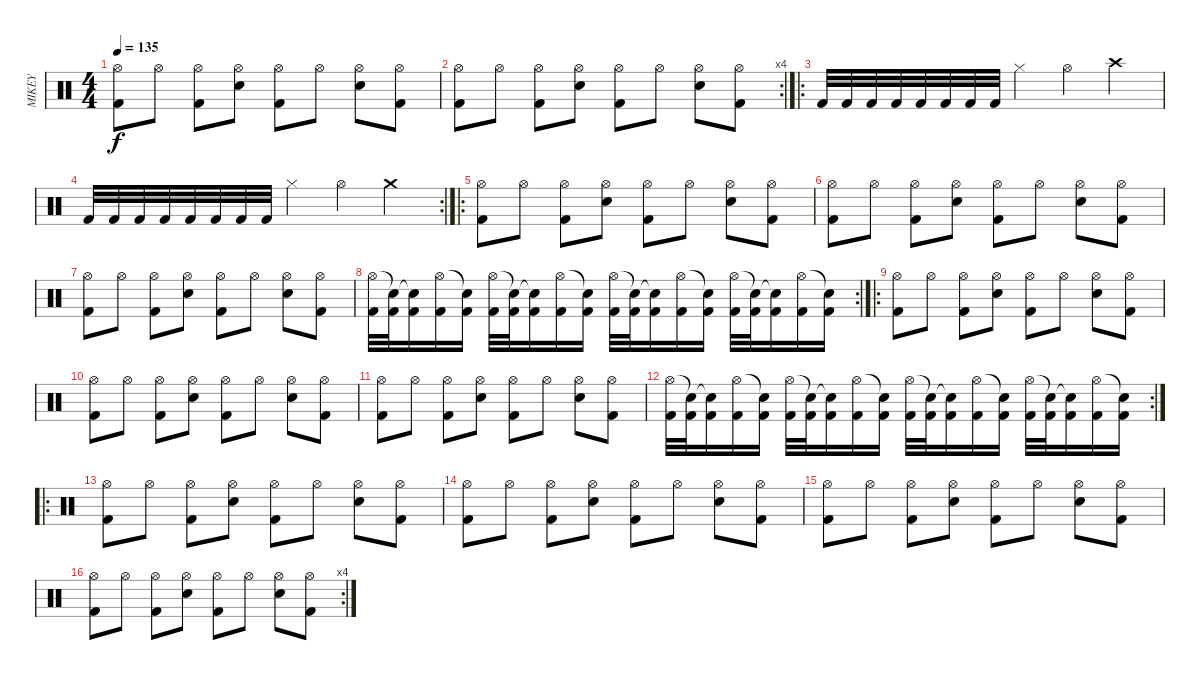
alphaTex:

\track ("MIKEY" "MIKEY") {instrument percussion}
\staff {score}
\articulation defaults
\ts (4 4)
\tempo 135
\clef neutral
\ks c
("Kick (hit) 2" "Hi-Hat (open)").8{dy f} "Hi-Hat (open)".8 ("Kick (hit) 2" "Hi-Hat (open)").8 ("Snare (hit) 2" "Hi-Hat (open)").8 ("Kick (hit) 2" "Hi-Hat (open)").8 "Hi-Hat (open)".8 ("Snare (hit) 2" "Hi-Hat (open)").8 ("Kick (hit) 2" "Hi-Hat (open)").8 |
\rc 4
("Kick (hit) 2" "Hi-Hat (open)").8 "Hi-Hat (open)".8 ("Kick (hit) 2" "Hi-Hat (open)").8 ("Snare (hit) 2" "Hi-Hat (open)").8 ("Kick (hit) 2" "Hi-Hat (open)").8 "Hi-Hat (open)".8 ("Snare (hit) 2" "Hi-Hat (open)").8 ("Kick (hit) 2" "Hi-Hat (open)").8 |
\ro "Kick (hit) 2".32 "Kick (hit) 2".32 "Kick (hit) 2".32 "Kick (hit) 2".32 "Kick (hit) 2".32 "Kick (hit) 2".32 "Kick (hit) 2".32 "Kick (hit) 2".32 "Hi-Hat (closed)".4 "Hi-Hat (open)".4 "Crash high (hit)".4
|
\rc 2 "Kick (hit) 2".32 "Kick (hit) 2".32 "Kick (hit) 2".32 "Kick (hit) 2".32 "Kick (hit) 2".32 "Kick (hit) 2".32 "Kick (hit) 2".32 "Kick (hit) 2".32 "Hi-Hat (closed)".4 "Hi-Hat (open)".4 "Crash medium (hit)".4
|
\ro
("Kick (hit) 2" "Hi-Hat (open)").8 "Hi-Hat (open)".8 ("Kick (hit) 2" "Hi-Hat (open)").8 ("Snare (hit) 2" "Hi-Hat (open)").8 ("Kick (hit) 2" "Hi-Hat (open)").8 "Hi-Hat (open)".8 ("Snare (hit) 2" "Hi-Hat (open)").8 ("Kick (hit) 2" "Hi-Hat (open)").8 |
("Kick (hit) 2" "Hi-Hat (open)").8 "Hi-Hat (open)".8 ("Kick (hit) 2" "Hi-Hat (open)").8 ("Snare (hit) 2" "Hi-Hat (open)").8 ("Kick (hit) 2" "Hi-Hat (open)").8 "Hi-Hat (open)".8 ("Snare (hit) 2" "Hi-Hat (open)").8 ("Kick (hit) 2" "Hi-Hat (open)").8 |
("Kick (hit) 2" "Hi-Hat (open)").8 "Hi-Hat (open)".8 ("Kick (hit) 2" "Hi-Hat (open)").8 ("Snare (hit) 2" "Hi-Hat (open)").8 ("Kick (hit) 2" "Hi-Hat (open)").8 "Hi-Hat (open)".8 ("Snare (hit) 2" "Hi-Hat (open)").8 ("Kick (hit) 2" "Hi-Hat (open)").8 |
\rc 2
("Hi-Hat (open)" "Kick (hit) 2").32 ("Snare (hit)"{t} "Kick (hit) 2").32 ("Snare (hit)"{t} "Kick (hit) 2").16 ("Hi-Hat (open)" "Kick (hit) 2").16 ("Snare (hit)"{t} "Kick (hit) 2").16 ("Hi-Hat (open)" "Kick (hit) 2").32 ("Snare (hit)"{t} "Kick (hit) 2").32 ("Snare (hit)"{t} "Kick (hit) 2").16 ("Hi-Hat (open)" "Kick (hit) 2").16 ("Snare (hit)"{t} "Kick (hit) 2").16 ("Hi-Hat (open)" "Kick (hit) 2").32 ("Snare (hit)"{t} "Kick (hit) 2").32 ("Snare (hit)"{t} "Kick (hit) 2").16 ("Hi-Hat (open)" "Kick (hit) 2").16 ("Snare (hit)"{t} "Kick (hit) 2").16 ("Hi-Hat (open)" "Kick (hit) 2").32 ("Snare (hit)"{t} "Kick (hit) 2").32 ("Snare (hit)"{t} "Kick (hit) 2").16 ("Hi-Hat (open)" "Kick (hit) 2").16 ("Snare (hit)"{t} "Kick (hit) 2").16 |
\ro
("Kick (hit) 2" "Hi-Hat (open)").8 "Hi-Hat (open)".8 ("Kick (hit) 2" "Hi-Hat (open)").8 ("Snare (hit) 2" "Hi-Hat (open)").8 ("Kick (hit) 2" "Hi-Hat (open)").8 "Hi-Hat (open)".8 ("Snare (hit) 2" "Hi-Hat (open)").8 ("Kick (hit) 2" "Hi-Hat (open)").8 |
("Kick (hit) 2" "Hi-Hat (open)").8 "Hi-Hat (open)".8 ("Kick (hit) 2" "Hi-Hat (open)").8 ("Snare (hit) 2" "Hi-Hat (open)").8 ("Kick (hit) 2" "Hi-Hat (open)").8 "Hi-Hat (open)".8 ("Snare (hit) 2" "Hi-Hat (open)").8 ("Kick (hit) 2" "Hi-Hat (open)").8 |
("Kick (hit) 2" "Hi-Hat (open)").8 "Hi-Hat (open)".8 ("Kick (hit) 2" "Hi-Hat (open)").8 ("Snare (hit) 2" "Hi-Hat (open)").8 ("Kick (hit) 2" "Hi-Hat (open)").8 "Hi-Hat (open)".8 ("Snare (hit) 2" "Hi-Hat (open)").8 ("Kick (hit) 2" "Hi-Hat (open)").8 |
\rc 2
("Hi-Hat (open)" "Kick (hit) 2").32 ("Snare (hit)"{t} "Kick (hit) 2").32 ("Snare (hit)"{t} "Kick (hit) 2").16 ("Hi-Hat (open)" "Kick (hit) 2").16 ("Snare (hit)"{t} "Kick (hit) 2").16 ("Hi-Hat (open)" "Kick (hit) 2").32 ("Snare (hit)"{t} "Kick (hit) 2").32 ("Snare (hit)"{t} "Kick (hit) 2").16 ("Hi-Hat (open)" "Kick (hit) 2").16 ("Snare (hit)"{t} "Kick (hit) 2").16 ("Hi-Hat (open)" "Kick (hit) 2").32 ("Snare (hit)"{t} "Kick (hit) 2").32 ("Snare (hit)"{t} "Kick (hit) 2").16 ("Hi-Hat (open)" "Kick (hit) 2").16 ("Snare (hit)"{t} "Kick (hit) 2").16 ("Hi-Hat (open)" "Kick (hit) 2").32 ("Snare (hit)"{t} "Kick (hit) 2").32 ("Snare (hit)"{t} "Kick (hit) 2").16 ("Hi-Hat (open)" "Kick (hit) 2").16 ("Snare (hit)"{t} "Kick (hit) 2").16 |
\ro
("Kick (hit) 2" "Hi-Hat (open)").8 "Hi-Hat (open)".8 ("Kick (hit) 2" "Hi-Hat (open)").8 ("Snare (hit) 2" "Hi-Hat (open)").8 ("Kick (hit) 2" "Hi-Hat (open)").8 "Hi-Hat (open)".8 ("Snare (hit) 2" "Hi-Hat (open)").8 ("Kick (hit) 2" "Hi-Hat (open)").8 |
("Kick (hit) 2" "Hi-Hat (open)").8 "Hi-Hat (open)".8 ("Kick (hit) 2" "Hi-Hat (open)").8 ("Snare (hit) 2" "Hi-Hat (open)").8 ("Kick (hit) 2" "Hi-Hat (open)").8 "Hi-Hat (open)".8 ("Snare (hit) 2" "Hi-Hat (open)").8 ("Kick (hit) 2" "Hi-Hat (open)").8 |
("Kick (hit) 2" "Hi-Hat (open)").8 "Hi-Hat (open)".8 ("Kick (hit) 2" "Hi-Hat (open)").8 ("Snare (hit) 2" "Hi-Hat (open)").8 ("Kick (hit) 2" "Hi-Hat (open)").8 "Hi-Hat (open)".8 ("Snare (hit) 2" "Hi-Hat (open)").8 ("Kick (hit) 2" "Hi-Hat (open)").8 |
\rc 4
("Kick (hit) 2" "Hi-Hat (open)").8 "Hi-Hat (open)".8 ("Kick (hit) 2" "Hi-Hat (open)").8 ("Snare (hit) 2" "Hi-Hat (open)").8 ("Kick (hit) 2" "Hi-Hat (open)").8 "Hi-Hat (open)".8 ("Snare (hit) 2" "Hi-Hat (open)").8 ("Kick (hit) 2" "Hi-Hat (open)").8
